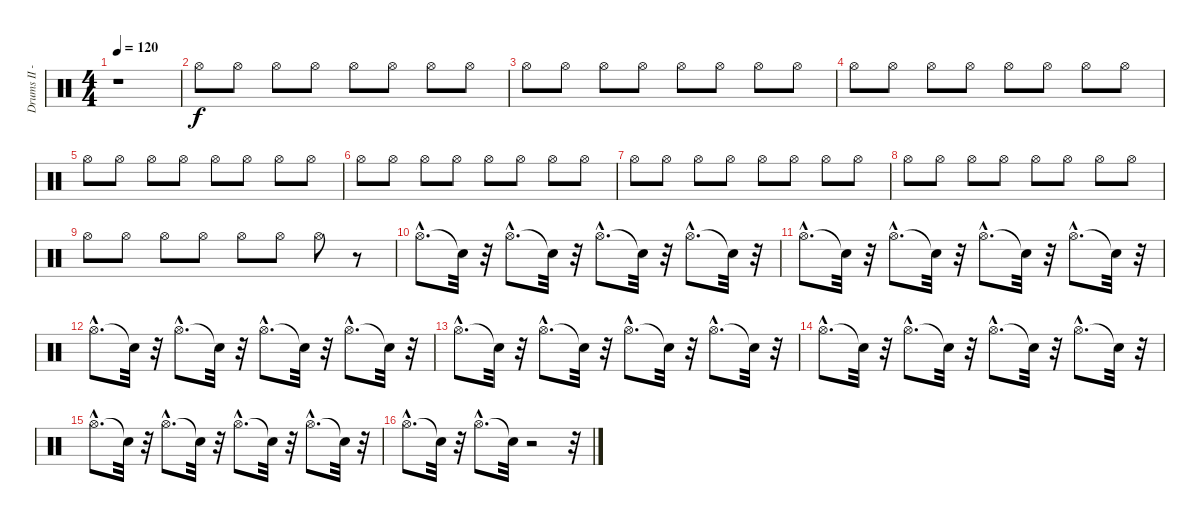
\track ("Drums II - Bobby Schayer" "Drums II -") {instrument percussion}
\staff {score}
\articulation defaults
\ts (4 4)
\tempo 120
\clef neutral
\ks c
r.1{dy f} |
"Hi-Hat (open)".8 "Hi-Hat (open)".8 "Hi-Hat (open)".8 "Hi-Hat (open)".8 "Hi-Hat (open)".8 "Hi-Hat (open)".8 "Hi-Hat (open)".8 "Hi-Hat (open)".8 |
"Hi-Hat (open)".8 "Hi-Hat (open)".8 "Hi-Hat (open)".8 "Hi-Hat (open)".8 "Hi-Hat (open)".8 "Hi-Hat (open)".8 "Hi-Hat (open)".8 "Hi-Hat (open)".8 |
"Hi-Hat (open)".8 "Hi-Hat (open)".8 "Hi-Hat (open)".8 "Hi-Hat (open)".8 "Hi-Hat (open)".8 "Hi-Hat (open)".8 "Hi-Hat (open)".8 "Hi-Hat (open)".8 |
"Hi-Hat (open)".8 "Hi-Hat (open)".8 "Hi-Hat (open)".8 "Hi-Hat (open)".8 "Hi-Hat (open)".8 "Hi-Hat (open)".8 "Hi-Hat (open)".8 "Hi-Hat (open)".8 |
"Hi-Hat (open)".8 "Hi-Hat (open)".8 "Hi-Hat (open)".8 "Hi-Hat (open)".8 "Hi-Hat (open)".8 "Hi-Hat (open)".8 "Hi-Hat (open)".8 "Hi-Hat (open)".8 |
"Hi-Hat (open)".8 "Hi-Hat (open)".8 "Hi-Hat (open)".8 "Hi-Hat (open)".8 "Hi-Hat (open)".8 "Hi-Hat (open)".8 "Hi-Hat (open)".8 "Hi-Hat (open)".8 |
"Hi-Hat (open)".8 "Hi-Hat (open)".8 "Hi-Hat (open)".8 "Hi-Hat (open)".8 "Hi-Hat (open)".8 "Hi-Hat (open)".8 "Hi-Hat (open)".8 "Hi-Hat (open)".8 |
"Hi-Hat (open)".8 "Hi-Hat (open)".8 "Hi-Hat (open)".8 "Hi-Hat (open)".8 "Hi-Hat (open)".8 "Hi-Hat (open)".8 "Hi-Hat (open)".8 r.8 |
"Hi-Hat (open)"{hac}.8{d} "Snare (hit)"{t}.32 r.32 "Hi-Hat (open)"{hac}.8{d} "Snare (hit)"{t}.32 r.32 "Hi-Hat (open)"{hac}.8{d} "Snare (hit)"{t}.32 r.32 "Hi-Hat (open)"{hac}.8{d} "Snare (hit)"{t}.32 r.32 |
"Hi-Hat (open)"{hac}.8{d} "Snare (hit)"{t}.32 r.32 "Hi-Hat (open)"{hac}.8{d} "Snare (hit)"{t}.32 r.32 "Hi-Hat (open)"{hac}.8{d} "Snare (hit)"{t}.32 r.32 "Hi-Hat (open)"{hac}.8{d} "Snare (hit)"{t}.32 r.32 |
"Hi-Hat (open)"{hac}.8{d} "Snare (hit)"{t}.32 r.32 "Hi-Hat (open)"{hac}.8{d} "Snare (hit)"{t}.32 r.32 "Hi-Hat (open)"{hac}.8{d} "Snare (hit)"{t}.32 r.32 "Hi-Hat (open)"{hac}.8{d} "Snare (hit)"{t}.32 r.32 |
"Hi-Hat (open)"{hac}.8{d} "Snare (hit)"{t}.32 r.32 "Hi-Hat (open)"{hac}.8{d} "Snare (hit)"{t}.32 r.32 "Hi-Hat (open)"{hac}.8{d} "Snare (hit)"{t}.32 r.32 "Hi-Hat (open)"{hac}.8{d} "Snare (hit)"{t}.32 r.32 |
"Hi-Hat (open)"{hac}.8{d} "Snare (hit)"{t}.32 r.32 "Hi-Hat (open)"{hac}.8{d} "Snare (hit)"{t}.32 r.32 "Hi-Hat (open)"{hac}.8{d} "Snare (hit)"{t}.32 r.32 "Hi-Hat (open)"{hac}.8{d} "Snare (hit)"{t}.32 r.32 |
"Hi-Hat (open)"{hac}.8{d} "Snare (hit)"{t}.32 r.32 "Hi-Hat (open)"{hac}.8{d} "Snare (hit)"{t}.32 r.32 "Hi-Hat (open)"{hac}.8{d} "Snare (hit)"{t}.32 r.32 "Hi-Hat (open)"{hac}.8{d} "Snare (hit)"{t}.32 r.32 |
"Hi-Hat (open)"{hac}.8{d} "Snare (hit)"{t}.32 r.32 "Hi-Hat (open)"{hac}.8{d} "Snare (hit)"{t}.32 r.2 r.32
